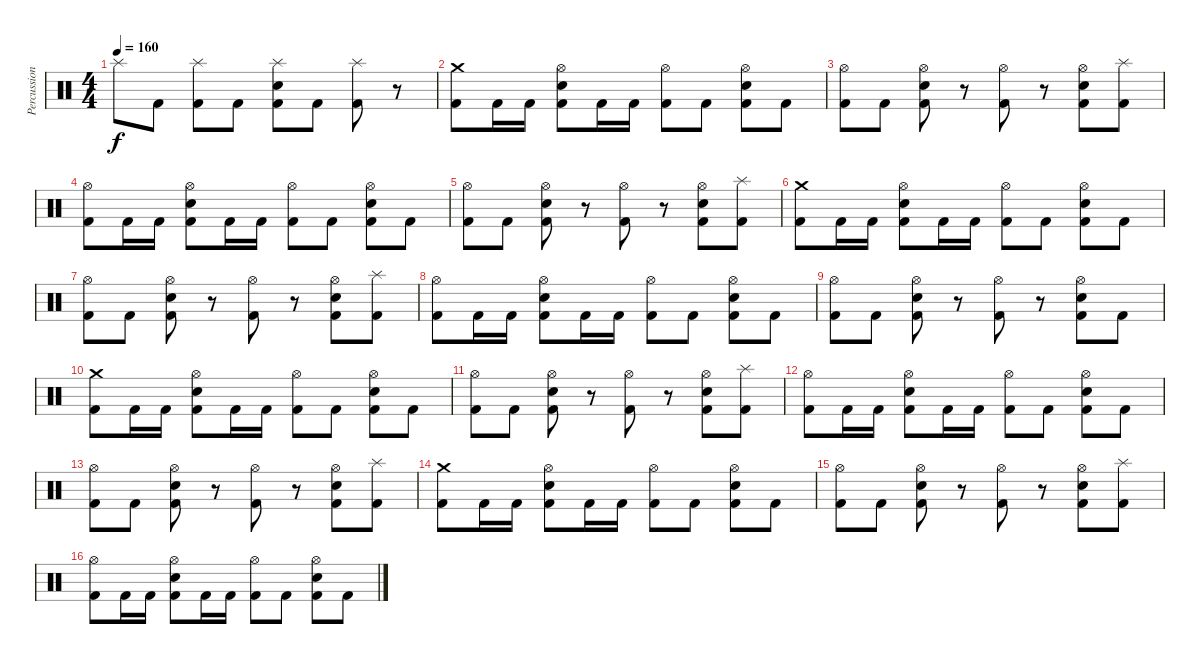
\track ("Percussion" "Percussion") {instrument percussion}
\staff {score}
\articulation defaults
\ts (4 4)
\tempo 160
\clef neutral
\ks c "Splash (hit)".8{dy f} "Kick (hit) 2".8
("Splash (hit)" "Kick (hit) 2").8 "Kick (hit) 2".8 ("Splash (hit)" "Electric Snare (hit)" "Kick (hit) 2").8 "Kick (hit) 2".8 ("Splash (hit)" "Kick (hit) 2").8 r.8 |
("Crash medium (hit)" "Kick (hit) 2").8 "Kick (hit) 2".16 "Kick (hit) 2".16 ("Hi-Hat (open)" "Electric Snare (hit)" "Kick (hit) 2").8 "Kick (hit) 2".16 "Kick (hit) 2".16 ("Hi-Hat (open)" "Kick (hit) 2").8 "Kick (hit) 2".8 ("Hi-Hat (open)" "Electric Snare (hit)" "Kick (hit) 2").8 "Kick (hit) 2".8 |
("Hi-Hat (open)" "Kick (hit) 2").8 "Kick (hit) 2".8 ("Hi-Hat (open)" "Electric Snare (hit)" "Kick (hit) 2").8 r.8 ("Hi-Hat (open)" "Kick (hit) 2").8 r.8 ("Hi-Hat (open)" "Electric Snare (hit)" "Kick (hit) 2").8 ("Splash (hit)" "Kick (hit) 2").8 |
("Hi-Hat (open)" "Kick (hit) 2").8 "Kick (hit) 2".16 "Kick (hit) 2".16 ("Hi-Hat (open)" "Electric Snare (hit)" "Kick (hit) 2").8 "Kick (hit) 2".16 "Kick (hit) 2".16 ("Hi-Hat (open)" "Kick (hit) 2").8 "Kick (hit) 2".8 ("Hi-Hat (open)" "Electric Snare (hit)" "Kick (hit) 2").8 "Kick (hit) 2".8 |
("Hi-Hat (open)" "Kick (hit) 2").8 "Kick (hit) 2".8 ("Hi-Hat (open)" "Electric Snare (hit)" "Kick (hit) 2").8 r.8 ("Hi-Hat (open)" "Kick (hit) 2").8 r.8 ("Hi-Hat (open)" "Electric Snare (hit)" "Kick (hit) 2").8 ("Splash (hit)" "Kick (hit) 2").8 |
("Crash medium (hit)" "Kick (hit) 2").8 "Kick (hit) 2".16 "Kick (hit) 2".16 ("Hi-Hat (open)" "Electric Snare (hit)" "Kick (hit) 2").8 "Kick (hit) 2".16 "Kick (hit) 2".16 ("Hi-Hat (open)" "Kick (hit) 2").8 "Kick (hit) 2".8 ("Hi-Hat (open)" "Electric Snare (hit)" "Kick (hit) 2").8 "Kick (hit) 2".8 |
("Hi-Hat (open)" "Kick (hit) 2").8 "Kick (hit) 2".8 ("Hi-Hat (open)" "Electric Snare (hit)" "Kick (hit) 2").8 r.8 ("Hi-Hat (open)" "Kick (hit) 2").8 r.8 ("Hi-Hat (open)" "Electric Snare (hit)" "Kick (hit) 2").8 ("Splash (hit)" "Kick (hit) 2").8 |
("Hi-Hat (open)" "Kick (hit) 2").8 "Kick (hit) 2".16 "Kick (hit) 2".16 ("Hi-Hat (open)" "Electric Snare (hit)" "Kick (hit) 2").8 "Kick (hit) 2".16 "Kick (hit) 2".16 ("Hi-Hat (open)" "Kick (hit) 2").8 "Kick (hit) 2".8 ("Hi-Hat (open)" "Electric Snare (hit)" "Kick (hit) 2").8 "Kick (hit) 2".8 |
("Hi-Hat (open)" "Kick (hit) 2").8 "Kick (hit) 2".8 ("Hi-Hat (open)" "Electric Snare (hit)" "Kick (hit) 2").8 r.8 ("Hi-Hat (open)" "Kick (hit) 2").8 r.8 ("Hi-Hat (open)" "Electric Snare (hit)" "Kick (hit) 2").8 "Kick (hit) 2".8 |
("Crash medium (hit)" "Kick (hit) 2").8 "Kick (hit) 2".16 "Kick (hit) 2".16 ("Hi-Hat (open)" "Electric Snare (hit)" "Kick (hit) 2").8 "Kick (hit) 2".16 "Kick (hit) 2".16 ("Hi-Hat (open)" "Kick (hit) 2").8 "Kick (hit) 2".8 ("Hi-Hat (open)" "Electric Snare (hit)" "Kick (hit) 2").8 "Kick (hit) 2".8 |
("Hi-Hat (open)" "Kick (hit) 2").8 "Kick (hit) 2".8 ("Hi-Hat (open)" "Electric Snare (hit)" "Kick (hit) 2").8 r.8 ("Hi-Hat (open)" "Kick (hit) 2").8 r.8 ("Hi-Hat (open)" "Electric Snare (hit)" "Kick (hit) 2").8 ("Splash (hit)" "Kick (hit) 2").8 |
("Hi-Hat (open)" "Kick (hit) 2").8 "Kick (hit) 2".16 "Kick (hit) 2".16 ("Hi-Hat (open)" "Electric Snare (hit)" "Kick (hit) 2").8 "Kick (hit) 2".16 "Kick (hit) 2".16 ("Hi-Hat (open)" "Kick (hit) 2").8 "Kick (hit) 2".8 ("Hi-Hat (open)" "Electric Snare (hit)" "Kick (hit) 2").8 "Kick (hit) 2".8 |
("Hi-Hat (open)" "Kick (hit) 2").8 "Kick (hit) 2".8 ("Hi-Hat (open)" "Electric Snare (hit)" "Kick (hit) 2").8 r.8 ("Hi-Hat (open)" "Kick (hit) 2").8 r.8 ("Hi-Hat (open)" "Electric Snare (hit)" "Kick (hit) 2").8 ("Splash (hit)" "Kick (hit) 2").8 |
("Crash medium (hit)" "Kick (hit) 2").8 "Kick (hit) 2".16 "Kick (hit) 2".16 ("Hi-Hat (open)" "Electric Snare (hit)" "Kick (hit) 2").8 "Kick (hit) 2".16 "Kick (hit) 2".16 ("Hi-Hat (open)" "Kick (hit) 2").8 "Kick (hit) 2".8 ("Hi-Hat (open)" "Electric Snare (hit)" "Kick (hit) 2").8 "Kick (hit) 2".8 |
("Hi-Hat (open)" "Kick (hit) 2").8 "Kick (hit) 2".8 ("Hi-Hat (open)" "Electric Snare (hit)" "Kick (hit) 2").8 r.8 ("Hi-Hat (open)" "Kick (hit) 2").8 r.8 ("Hi-Hat (open)" "Electric Snare (hit)" "Kick (hit) 2").8 ("Splash (hit)" "Kick (hit) 2").8 |
("Hi-Hat (open)" "Kick (hit) 2").8 "Kick (hit) 2".16 "Kick (hit) 2".16 ("Hi-Hat (open)" "Electric Snare (hit)" "Kick (hit) 2").8 "Kick (hit) 2".16 "Kick (hit) 2".16 ("Hi-Hat (open)" "Kick (hit) 2").8 "Kick (hit) 2".8 ("Hi-Hat (open)" "Electric Snare (hit)" "Kick (hit) 2").8 "Kick (hit) 2".8
